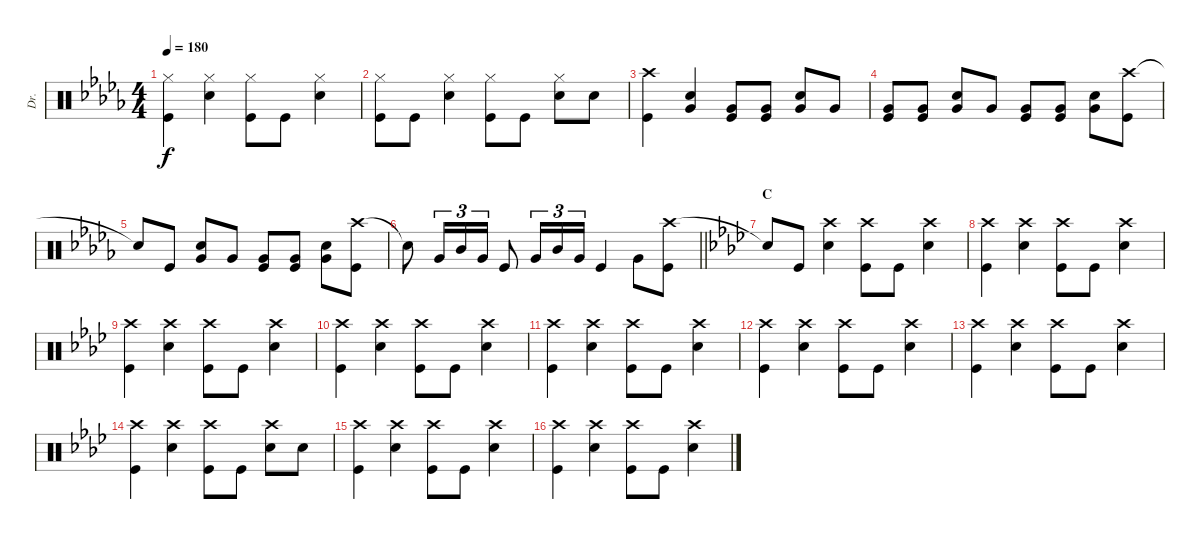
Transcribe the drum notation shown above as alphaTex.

\track ("Dr." "Dr.") {instrument percussion}
\staff {score}
\articulation defaults
\ts (4 4)
\tempo 180
\clef neutral
\ks db
("Hi-Hat (closed)" "Kick (hit)").4{dy f} ("Hi-Hat (closed)" "Snare (hit) 2").4 ("Hi-Hat (closed)" "Kick (hit)").8 "Kick (hit)".8 ("Hi-Hat (closed)" "Snare (hit) 2").4 |
("Hi-Hat (closed)" "Kick (hit)").8 "Kick (hit)".8 ("Hi-Hat (closed)" "Snare (hit) 2").4 ("Hi-Hat (closed)" "Kick (hit)").8 "Kick (hit)".8 ("Hi-Hat (closed)" "Snare (hit) 2").8 "Snare (hit) 2".8 |
("Crash high (hit)" "Kick (hit)").4 ("Snare (hit) 2" "Very Low Tom (hit)").4 ("Very Low Tom (hit)" "Kick (hit)").8 ("Very Low Tom (hit)" "Kick (hit)").8 ("Snare (hit) 2" "Very Low Tom (hit)").8 "Very Low Tom (hit)".8 |
("Very Low Tom (hit)" "Kick (hit)").8 ("Very Low Tom (hit)" "Kick (hit)").8 ("Snare (hit) 2" "Very Low Tom (hit)").8 "Very Low Tom (hit)".8 ("Very Low Tom (hit)" "Kick (hit)").8 ("Very Low Tom (hit)" "Kick (hit)").8 ("Snare (hit) 2" "Very Low Tom (hit)").8 ("Crash high (hit)" "Kick (hit)").8 |
"Snare (hit)"{t}.8 "Kick (hit)".8 ("Snare (hit) 2" "Very Low Tom (hit)").8 "Very Low Tom (hit)".8 ("Very Low Tom (hit)" "Kick (hit)").8 ("Very Low Tom (hit)" "Kick (hit)").8 ("Snare (hit) 2" "Very Low Tom (hit)").8 ("Crash high (hit)" "Kick (hit)").8 |
\barLineRight lightlight "Snare (hit)"{t}.8 "Very Low Tom (hit)".16{tu (3 2)} "Mid Tom (hit)".16{tu (3 2)} "Very Low Tom (hit)".16{tu (3 2)} "Kick (hit)".8 "Very Low Tom (hit)".16{tu (3 2)} "Mid Tom (hit)".16{tu (3 2)} "Very Low Tom (hit)".16{tu (3 2)} "Kick (hit)".4 "Very Low Tom (hit)".8
("Crash high (hit)" "Kick (hit)").8 |
\section ("" "C")
\ks ab "Snare (hit)"{t}.8 "Kick (hit)".8
("Crash high (hit)" "Snare (hit) 2").4 ("Crash high (hit)" "Kick (hit)").8 "Kick (hit)".8 ("Crash high (hit)" "Snare (hit) 2").4 |
("Crash high (hit)" "Kick (hit)").4 ("Crash high (hit)" "Snare (hit) 2").4 ("Crash high (hit)" "Kick (hit)").8 "Kick (hit)".8 ("Crash high (hit)" "Snare (hit) 2").4 |
("Crash high (hit)" "Kick (hit)").4 ("Crash high (hit)" "Snare (hit) 2").4 ("Crash high (hit)" "Kick (hit)").8 "Kick (hit)".8 ("Crash high (hit)" "Snare (hit) 2").4 |
("Crash high (hit)" "Kick (hit)").4 ("Crash high (hit)" "Snare (hit) 2").4 ("Crash high (hit)" "Kick (hit)").8 "Kick (hit)".8 ("Crash high (hit)" "Snare (hit) 2").4 |
("Crash high (hit)" "Kick (hit)").4 ("Crash high (hit)" "Snare (hit) 2").4 ("Crash high (hit)" "Kick (hit)").8 "Kick (hit)".8 ("Crash high (hit)" "Snare (hit) 2").4 |
("Crash high (hit)" "Kick (hit)").4 ("Crash high (hit)" "Snare (hit) 2").4 ("Crash high (hit)" "Kick (hit)").8 "Kick (hit)".8 ("Crash high (hit)" "Snare (hit) 2").4 |
("Crash high (hit)" "Kick (hit)").4 ("Crash high (hit)" "Snare (hit) 2").4 ("Crash high (hit)" "Kick (hit)").8 "Kick (hit)".8 ("Crash high (hit)" "Snare (hit) 2").4 |
("Crash high (hit)" "Kick (hit)").4 ("Crash high (hit)" "Snare (hit) 2").4 ("Crash high (hit)" "Kick (hit)").8 "Kick (hit)".8 ("Crash high (hit)" "Snare (hit) 2").8 "Snare (hit) 2".8 |
("Crash high (hit)" "Kick (hit)").4 ("Crash high (hit)" "Snare (hit) 2").4 ("Crash high (hit)" "Kick (hit)").8 "Kick (hit)".8 ("Crash high (hit)" "Snare (hit) 2").4 |
("Crash high (hit)" "Kick (hit)").4 ("Crash high (hit)" "Snare (hit) 2").4 ("Crash high (hit)" "Kick (hit)").8 "Kick (hit)".8 ("Crash high (hit)" "Snare (hit) 2").4
